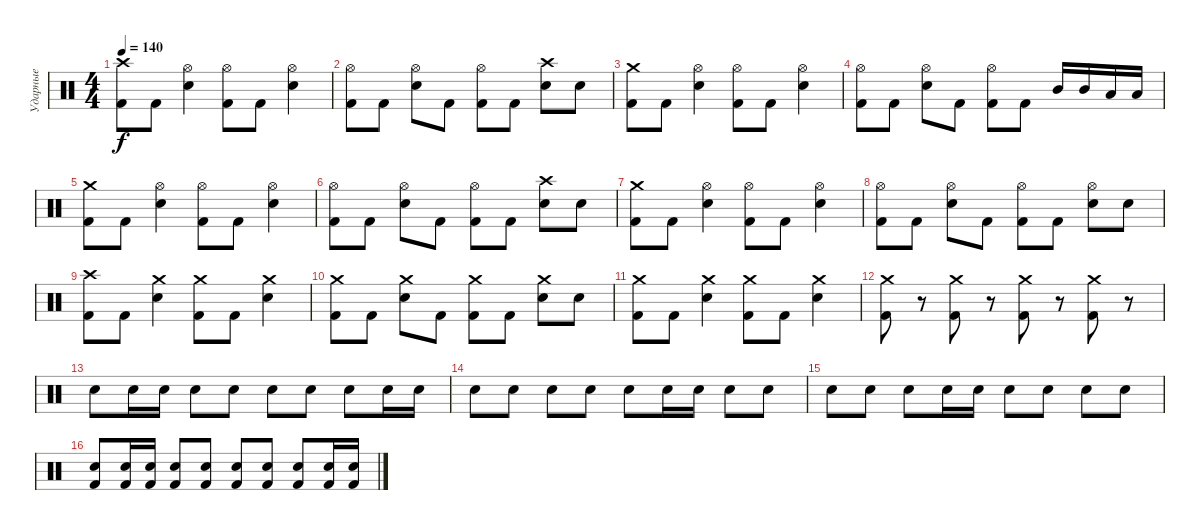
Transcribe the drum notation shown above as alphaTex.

\track ("Ударные" "Ударные") {instrument percussion}
\staff {score}
\articulation defaults
\ts (4 4)
\tempo 140
\clef neutral
\ks c
("Crash high (hit)" "Kick (hit) 2").8{dy f} "Kick (hit) 2".8 ("Hi-Hat (open)" "Electric Snare (hit)").4 ("Hi-Hat (open)" "Kick (hit) 2").8 "Kick (hit) 2".8 ("Hi-Hat (open)" "Electric Snare (hit)").4 |
("Hi-Hat (open)" "Kick (hit) 2").8 "Kick (hit) 2".8 ("Hi-Hat (open)" "Electric Snare (hit)").8 "Kick (hit) 2".8 ("Hi-Hat (open)" "Kick (hit) 2").8 "Kick (hit) 2".8 ("Crash high (hit)" "Electric Snare (hit)").8 "Electric Snare (hit)".8 |
("Crash medium (hit)" "Kick (hit) 2").8 "Kick (hit) 2".8 ("Hi-Hat (open)" "Electric Snare (hit)").4 ("Hi-Hat (open)" "Kick (hit) 2").8 "Kick (hit) 2".8 ("Hi-Hat (open)" "Electric Snare (hit)").4 |
("Hi-Hat (open)" "Kick (hit) 2").8 "Kick (hit) 2".8 ("Hi-Hat (open)" "Electric Snare (hit)").8 "Kick (hit) 2".8 ("Hi-Hat (open)" "Kick (hit) 2").8 "Kick (hit) 2".8 "Mid Tom (hit)".16 "Mid Tom (hit)".16 "Low Tom (hit)".16 "Low Tom (hit)".16 |
("Crash medium (hit)" "Kick (hit) 2").8 "Kick (hit) 2".8 ("Hi-Hat (open)" "Electric Snare (hit)").4 ("Hi-Hat (open)" "Kick (hit) 2").8 "Kick (hit) 2".8 ("Hi-Hat (open)" "Electric Snare (hit)").4 |
("Hi-Hat (open)" "Kick (hit) 2").8 "Kick (hit) 2".8 ("Hi-Hat (open)" "Electric Snare (hit)").8 "Kick (hit) 2".8 ("Hi-Hat (open)" "Kick (hit) 2").8 "Kick (hit) 2".8 ("Crash high (hit)" "Electric Snare (hit)").8 "Electric Snare (hit)".8 |
("Crash medium (hit)" "Kick (hit) 2").8 "Kick (hit) 2".8 ("Hi-Hat (open)" "Electric Snare (hit)").4 ("Hi-Hat (open)" "Kick (hit) 2").8 "Kick (hit) 2".8 ("Hi-Hat (open)" "Electric Snare (hit)").4 |
("Hi-Hat (open)" "Kick (hit) 2").8 "Kick (hit) 2".8 ("Hi-Hat (open)" "Electric Snare (hit)").8 "Kick (hit) 2".8 ("Hi-Hat (open)" "Kick (hit) 2").8 "Kick (hit) 2".8 ("Hi-Hat (open)" "Electric Snare (hit)").8 "Electric Snare (hit)".8 |
("Crash high (hit)" "Kick (hit) 2").8 "Kick (hit) 2".8 ("Crash medium (hit)" "Electric Snare (hit)").4 ("Crash medium (hit)" "Kick (hit) 2").8 "Kick (hit) 2".8 ("Crash medium (hit)" "Electric Snare (hit)").4 |
("Crash medium (hit)" "Kick (hit) 2").8 "Kick (hit) 2".8 ("Crash medium (hit)" "Electric Snare (hit)").8 "Kick (hit) 2".8 ("Crash medium (hit)" "Kick (hit) 2").8 "Kick (hit) 2".8 ("Crash medium (hit)" "Electric Snare (hit)").8 "Electric Snare (hit)".8 |
("Crash medium (hit)" "Kick (hit) 2").8 "Kick (hit) 2".8 ("Crash medium (hit)" "Electric Snare (hit)").4 ("Crash medium (hit)" "Kick (hit) 2").8 "Kick (hit) 2".8 ("Crash medium (hit)" "Electric Snare (hit)").4 |
("Crash medium (hit)" "Kick (hit) 2").8 r.8 ("Crash medium (hit)" "Kick (hit) 2").8 r.8 ("Crash medium (hit)" "Kick (hit) 2").8 r.8 ("Crash medium (hit)" "Kick (hit) 2").8 r.8 |
"Electric Snare (hit)".8 "Electric Snare (hit)".16 "Electric Snare (hit)".16 "Electric Snare (hit)".8 "Electric Snare (hit)".8 "Electric Snare (hit)".8 "Electric Snare (hit)".8 "Electric Snare (hit)".8 "Electric Snare (hit)".16 "Electric Snare (hit)".16 |
"Electric Snare (hit)".8 "Electric Snare (hit)".8 "Electric Snare (hit)".8 "Electric Snare (hit)".8 "Electric Snare (hit)".8 "Electric Snare (hit)".16 "Electric Snare (hit)".16 "Electric Snare (hit)".8 "Electric Snare (hit)".8 |
"Electric Snare (hit)".8 "Electric Snare (hit)".8 "Electric Snare (hit)".8 "Electric Snare (hit)".16 "Electric Snare (hit)".16 "Electric Snare (hit)".8 "Electric Snare (hit)".8 "Electric Snare (hit)".8 "Electric Snare (hit)".8 |
("Electric Snare (hit)" "Kick (hit) 2").8 ("Electric Snare (hit)" "Kick (hit) 2").16 ("Electric Snare (hit)" "Kick (hit) 2").16 ("Electric Snare (hit)" "Kick (hit) 2").8 ("Electric Snare (hit)" "Kick (hit) 2").8 ("Electric Snare (hit)" "Kick (hit) 2").8 ("Electric Snare (hit)" "Kick (hit) 2").8 ("Electric Snare (hit)" "Kick (hit) 2").8 ("Electric Snare (hit)" "Kick (hit) 2").16 ("Electric Snare (hit)" "Kick (hit) 2").16
